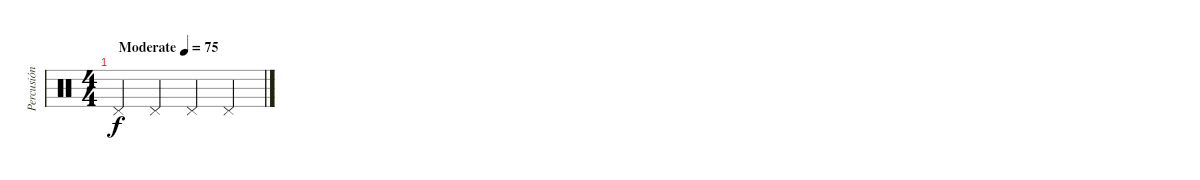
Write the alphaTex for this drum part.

\track ("Percusión" "Percusión") {instrument percussion}
\staff {score}
\articulation defaults
\ts (4 4)
\tempo (75 "Moderate")
\clef neutral
\ks c "Pedal Hi-Hat (hit)".4{dy f} "Pedal Hi-Hat (hit)".4 "Pedal Hi-Hat (hit)".4 "Pedal Hi-Hat (hit)".4
